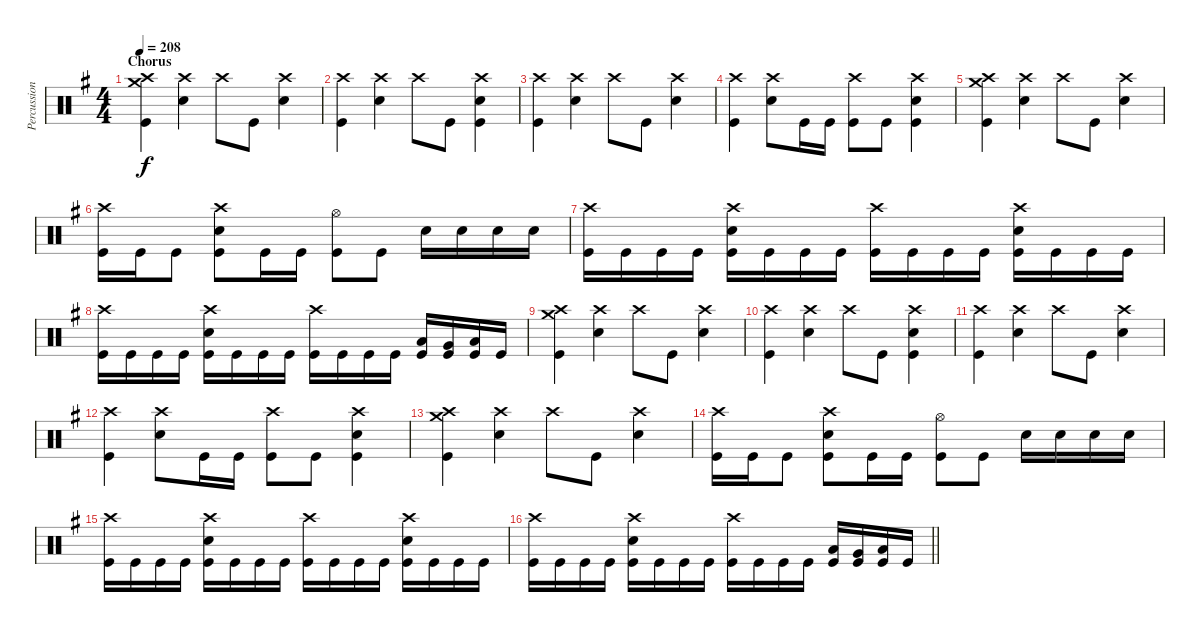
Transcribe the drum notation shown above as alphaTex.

\track ("Percussion" "Percussion") {instrument percussion}
\staff {score}
\articulation defaults
\ts (4 4)
\section ("" "Chorus")
\tempo 208
\clef neutral
\ks g
("Crash high (hit)" "Crash medium (hit)" "Kick (hit)").4{dy f} ("Crash high (hit)" "Electric Snare (hit)").4 "Crash high (hit)".8 "Kick (hit)".8 ("Crash high (hit)" "Electric Snare (hit)").4 |
("Crash high (hit)" "Kick (hit)").4 ("Crash high (hit)" "Electric Snare (hit)").4 "Crash high (hit)".8 "Kick (hit)".8 ("Crash high (hit)" "Electric Snare (hit)" "Kick (hit)").4 |
("Crash high (hit)" "Kick (hit)").4 ("Crash high (hit)" "Electric Snare (hit)").4 "Crash high (hit)".8 "Kick (hit)".8 ("Crash high (hit)" "Electric Snare (hit)").4 |
("Crash high (hit)" "Kick (hit)").4 ("Crash high (hit)" "Electric Snare (hit)").8 "Kick (hit)".16 "Kick (hit)".16 ("Crash high (hit)" "Kick (hit)").8 "Kick (hit)".8 ("Crash high (hit)" "Electric Snare (hit)" "Kick (hit)").4 |
("Crash high (hit)" "Crash medium (hit)" "Kick (hit)").4 ("Crash high (hit)" "Electric Snare (hit)").4 "Crash high (hit)".8 "Kick (hit)".8 ("Crash high (hit)" "Electric Snare (hit)").4 |
("Crash high (hit)" "Kick (hit)").16 "Kick (hit)".16 "Kick (hit)".8 ("Crash high (hit)" "Electric Snare (hit)" "Kick (hit)").8 "Kick (hit)".16 "Kick (hit)".16 ("Hi-Hat (open)" "Kick (hit)").8 "Kick (hit)".8 "Electric Snare (hit)".16 "Electric Snare (hit)".16 "Electric Snare (hit)".16 "Electric Snare (hit)".16 |
("Crash high (hit)" "Kick (hit)").16 "Kick (hit)".16 "Kick (hit)".16 "Kick (hit)".16 ("Crash high (hit)" "Electric Snare (hit)" "Kick (hit)").16 "Kick (hit)".16 "Kick (hit)".16 "Kick (hit)".16 ("Crash high (hit)" "Kick (hit)").16 "Kick (hit)".16 "Kick (hit)".16 "Kick (hit)".16 ("Crash high (hit)" "Electric Snare (hit)" "Kick (hit)").16 "Kick (hit)".16 "Kick (hit)".16 "Kick (hit)".16 |
("Crash high (hit)" "Kick (hit)").16 "Kick (hit)".16 "Kick (hit)".16 "Kick (hit)".16 ("Crash high (hit)" "Electric Snare (hit)" "Kick (hit)").16 "Kick (hit)".16 "Kick (hit)".16 "Kick (hit)".16 ("Crash high (hit)" "Kick (hit)").16 "Kick (hit)".16 "Kick (hit)".16 "Kick (hit)".16 ("Low Tom (hit)" "Kick (hit)").16 ("Very Low Tom (hit)" "Kick (hit)").16 ("Low Floor Tom (hit)" "Kick (hit)").16 "Kick (hit)".16 |
("Crash high (hit)" "Crash medium (hit)" "Kick (hit)").4 ("Crash high (hit)" "Electric Snare (hit)").4 "Crash high (hit)".8 "Kick (hit)".8 ("Crash high (hit)" "Electric Snare (hit)").4 |
("Crash high (hit)" "Kick (hit)").4 ("Crash high (hit)" "Electric Snare (hit)").4 "Crash high (hit)".8 "Kick (hit)".8 ("Crash high (hit)" "Electric Snare (hit)" "Kick (hit)").4 |
("Crash high (hit)" "Kick (hit)").4 ("Crash high (hit)" "Electric Snare (hit)").4 "Crash high (hit)".8 "Kick (hit)".8 ("Crash high (hit)" "Electric Snare (hit)").4 |
("Crash high (hit)" "Kick (hit)").4 ("Crash high (hit)" "Electric Snare (hit)").8 "Kick (hit)".16 "Kick (hit)".16 ("Crash high (hit)" "Kick (hit)").8 "Kick (hit)".8 ("Crash high (hit)" "Electric Snare (hit)" "Kick (hit)").4 |
("Crash high (hit)" "Crash medium (hit)" "Kick (hit)").4 ("Crash high (hit)" "Electric Snare (hit)").4 "Crash high (hit)".8 "Kick (hit)".8 ("Crash high (hit)" "Electric Snare (hit)").4 |
("Crash high (hit)" "Kick (hit)").16 "Kick (hit)".16 "Kick (hit)".8 ("Crash high (hit)" "Electric Snare (hit)" "Kick (hit)").8 "Kick (hit)".16 "Kick (hit)".16 ("Hi-Hat (open)" "Kick (hit)").8 "Kick (hit)".8 "Electric Snare (hit)".16 "Electric Snare (hit)".16 "Electric Snare (hit)".16 "Electric Snare (hit)".16 |
("Crash high (hit)" "Kick (hit)").16 "Kick (hit)".16 "Kick (hit)".16 "Kick (hit)".16 ("Crash high (hit)" "Electric Snare (hit)" "Kick (hit)").16 "Kick (hit)".16 "Kick (hit)".16 "Kick (hit)".16 ("Crash high (hit)" "Kick (hit)").16 "Kick (hit)".16 "Kick (hit)".16 "Kick (hit)".16 ("Crash high (hit)" "Electric Snare (hit)" "Kick (hit)").16 "Kick (hit)".16 "Kick (hit)".16 "Kick (hit)".16 |
\barLineRight lightlight
("Crash high (hit)" "Kick (hit)").16 "Kick (hit)".16 "Kick (hit)".16 "Kick (hit)".16 ("Crash high (hit)" "Electric Snare (hit)" "Kick (hit)").16 "Kick (hit)".16 "Kick (hit)".16 "Kick (hit)".16 ("Crash high (hit)" "Kick (hit)").16 "Kick (hit)".16 "Kick (hit)".16 "Kick (hit)".16 ("Low Tom (hit)" "Kick (hit)").16 ("Very Low Tom (hit)" "Kick (hit)").16 ("Low Floor Tom (hit)" "Kick (hit)").16 "Kick (hit)".16
